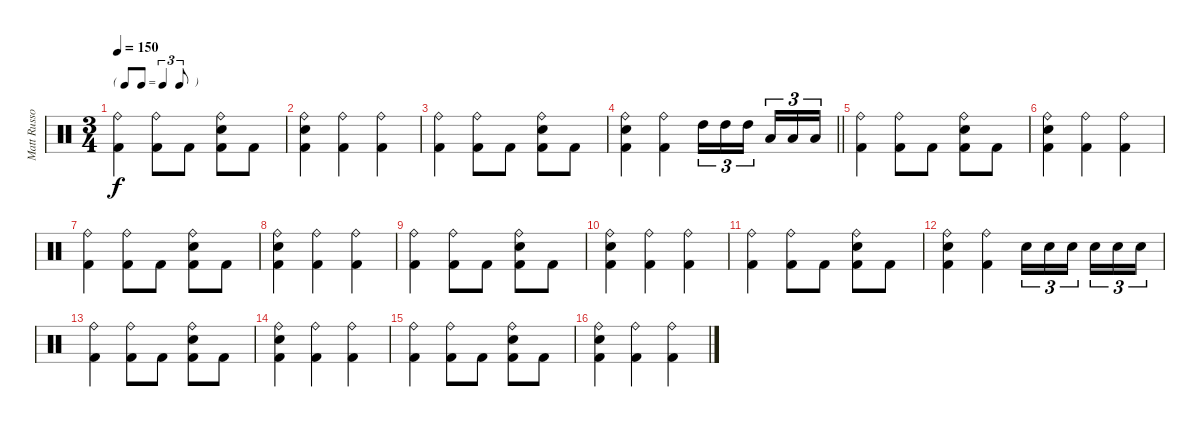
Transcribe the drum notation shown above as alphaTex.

\track ("Matt Russo" "Matt Russo") {instrument percussion}
\staff {score}
\articulation defaults
\ts (3 4)
\tf triplet8th
\tempo 150
\clef neutral
\ks c
("Ride (bell)" "Kick (hit) 2").4{dy f} ("Ride (bell)" "Kick (hit) 2").8 "Kick (hit) 2".8 ("Ride (bell)" "Electric Snare (hit)" "Kick (hit) 2").8 "Kick (hit) 2".8 |
("Ride (bell)" "Electric Snare (hit)" "Kick (hit) 2").4 ("Ride (bell)" "Kick (hit) 2").4 ("Ride (bell)" "Kick (hit) 2").4 |
("Ride (bell)" "Kick (hit) 2").4 ("Ride (bell)" "Kick (hit) 2").8 "Kick (hit) 2".8 ("Ride (bell)" "Electric Snare (hit)" "Kick (hit) 2").8 "Kick (hit) 2".8 |
\barLineRight lightlight
("Ride (bell)" "Electric Snare (hit)" "Kick (hit) 2").4 ("Ride (bell)" "Kick (hit) 2").4 "High Tom (hit)".16{tu (3 2)} "High Tom (hit)".16{tu (3 2)} "High Tom (hit)".16{tu (3 2) beam splitsecondary} "Low Tom (hit)".16{tu (3 2)} "Low Tom (hit)".16{tu (3 2)} "Low Tom (hit)".16{tu (3 2)} |
("Ride (bell)" "Kick (hit) 2").4 ("Ride (bell)" "Kick (hit) 2").8 "Kick (hit) 2".8 ("Ride (bell)" "Electric Snare (hit)" "Kick (hit) 2").8 "Kick (hit) 2".8 |
("Ride (bell)" "Electric Snare (hit)" "Kick (hit) 2").4 ("Ride (bell)" "Kick (hit) 2").4 ("Ride (bell)" "Kick (hit) 2").4 |
("Ride (bell)" "Kick (hit) 2").4 ("Ride (bell)" "Kick (hit) 2").8 "Kick (hit) 2".8 ("Ride (bell)" "Electric Snare (hit)" "Kick (hit) 2").8 "Kick (hit) 2".8 |
("Ride (bell)" "Electric Snare (hit)" "Kick (hit) 2").4 ("Ride (bell)" "Kick (hit) 2").4 ("Ride (bell)" "Kick (hit) 2").4 |
("Ride (bell)" "Kick (hit) 2").4 ("Ride (bell)" "Kick (hit) 2").8 "Kick (hit) 2".8 ("Ride (bell)" "Electric Snare (hit)" "Kick (hit) 2").8 "Kick (hit) 2".8 |
("Ride (bell)" "Electric Snare (hit)" "Kick (hit) 2").4 ("Ride (bell)" "Kick (hit) 2").4 ("Ride (bell)" "Kick (hit) 2").4 |
("Ride (bell)" "Kick (hit) 2").4 ("Ride (bell)" "Kick (hit) 2").8 "Kick (hit) 2".8 ("Ride (bell)" "Electric Snare (hit)" "Kick (hit) 2").8 "Kick (hit) 2".8 |
("Ride (bell)" "Electric Snare (hit)" "Kick (hit) 2").4 ("Ride (bell)" "Kick (hit) 2").4 "Electric Snare (hit)".16{tu (3 2)} "Electric Snare (hit)".16{tu (3 2)} "Electric Snare (hit)".16{tu (3 2) beam splitsecondary} "Electric Snare (hit)".16{tu (3 2)} "Electric Snare (hit)".16{tu (3 2)} "Electric Snare (hit)".16{tu (3 2)} |
("Ride (bell)" "Kick (hit) 2").4 ("Ride (bell)" "Kick (hit) 2").8 "Kick (hit) 2".8 ("Ride (bell)" "Electric Snare (hit)" "Kick (hit) 2").8 "Kick (hit) 2".8 |
("Ride (bell)" "Electric Snare (hit)" "Kick (hit) 2").4 ("Ride (bell)" "Kick (hit) 2").4 ("Ride (bell)" "Kick (hit) 2").4 |
("Ride (bell)" "Kick (hit) 2").4 ("Ride (bell)" "Kick (hit) 2").8 "Kick (hit) 2".8 ("Ride (bell)" "Electric Snare (hit)" "Kick (hit) 2").8 "Kick (hit) 2".8 |
("Ride (bell)" "Electric Snare (hit)" "Kick (hit) 2").4 ("Ride (bell)" "Kick (hit) 2").4 ("Ride (bell)" "Kick (hit) 2").4
